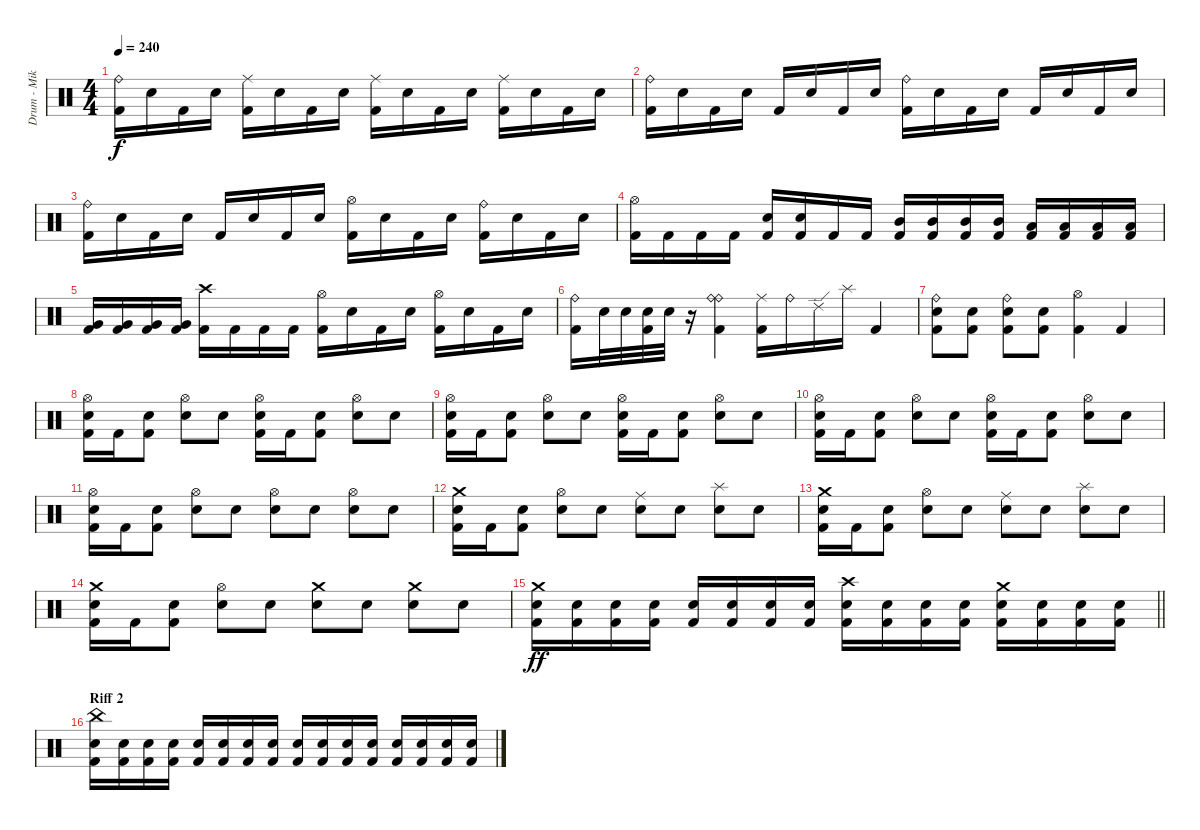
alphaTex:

\track ("Drum - Mike Collins" "Drum - Mik") {instrument percussion}
\staff {score}
\articulation defaults
\ts (4 4)
\tempo 240
\clef neutral
\ks c
("Ride (bell)" "Kick (hit) 2").16{dy f} "Electric Snare (hit)".16 "Kick (hit) 2".16 "Electric Snare (hit)".16 ("Ride (middle)" "Kick (hit) 2").16 "Electric Snare (hit)".16 "Kick (hit) 2".16 "Electric Snare (hit)".16 ("Ride (middle)" "Kick (hit) 2").16 "Electric Snare (hit)".16 "Kick (hit) 2".16 "Electric Snare (hit)".16 ("Ride (middle)" "Kick (hit) 2").16 "Electric Snare (hit)".16 "Kick (hit) 2".16 "Electric Snare (hit)".16 |
("Ride (bell)" "Kick (hit) 2").16 "Electric Snare (hit)".16 "Kick (hit) 2".16 "Electric Snare (hit)".16 "Kick (hit) 2".16 "Electric Snare (hit)".16 "Kick (hit) 2".16 "Electric Snare (hit)".16 ("Ride (bell)" "Kick (hit) 2").16 "Electric Snare (hit)".16 "Kick (hit) 2".16 "Electric Snare (hit)".16 "Kick (hit) 2".16 "Electric Snare (hit)".16 "Kick (hit) 2".16 "Electric Snare (hit)".16 |
("Ride (bell)" "Kick (hit) 2").16 "Electric Snare (hit)".16 "Kick (hit) 2".16 "Electric Snare (hit)".16 "Kick (hit) 2".16 "Electric Snare (hit)".16 "Kick (hit) 2".16 "Electric Snare (hit)".16 ("Hi-Hat (open)" "Kick (hit) 2").16 "Electric Snare (hit)".16 "Kick (hit) 2".16 "Electric Snare (hit)".16 ("Ride (bell)" "Kick (hit) 2").16 "Electric Snare (hit)".16 "Kick (hit) 2".16 "Electric Snare (hit)".16 |
("Hi-Hat (open)" "Kick (hit) 2").16 "Kick (hit) 2".16 "Kick (hit) 2".16 "Kick (hit) 2".16 ("Electric Snare (hit)" "Kick (hit) 2").16 ("Electric Snare (hit)" "Kick (hit) 2").16 "Kick (hit) 2".16 "Kick (hit) 2".16 ("Mid Tom (hit)" "Kick (hit) 2").16 ("Mid Tom (hit)" "Kick (hit) 2").16 ("Mid Tom (hit)" "Kick (hit) 2").16 ("Mid Tom (hit)" "Kick (hit) 2").16 ("Low Tom (hit)" "Kick (hit) 2").16 ("Low Tom (hit)" "Kick (hit) 2").16 ("Low Tom (hit)" "Kick (hit) 2").16 ("Low Tom (hit)" "Kick (hit) 2").16 |
("Very Low Tom (hit)" "Kick (hit) 2").16 ("Very Low Tom (hit)" "Kick (hit) 2").16 ("Very Low Tom (hit)" "Kick (hit) 2").16 ("Very Low Tom (hit)" "Kick (hit) 2").16 ("Crash high (hit)" "Kick (hit) 2").16 "Kick (hit) 2".16 "Kick (hit) 2".16 "Kick (hit) 2".16 ("Hi-Hat (open)" "Kick (hit) 2").16 "Electric Snare (hit)".16 "Kick (hit) 2".16 "Electric Snare (hit)".16 ("Hi-Hat (open)" "Kick (hit) 2").16 "Electric Snare (hit)".16 "Kick (hit) 2".16 "Electric Snare (hit)".16 |
("Ride (bell)" "Kick (hit) 2").16 "Electric Snare (hit)".32 "Electric Snare (hit)".32 ("Electric Snare (hit)" "Kick (hit) 2").32 "Electric Snare (hit)".32 r.16 ("Ride (bell)" "Ride (bell)" "Kick (hit) 2").4 ("Ride (middle)" "Kick (hit) 2").16 "Ride (bell)".16 "Ride (edge) 2".16 "Splash (hit)".16 "Kick (hit) 2".4 |
("Ride (bell)" "Electric Snare (hit)" "Kick (hit) 2").8 ("Electric Snare (hit)" "Kick (hit) 2").8 ("Ride (bell)" "Electric Snare (hit)" "Kick (hit) 2").8 ("Electric Snare (hit)" "Kick (hit) 2").8 ("Hi-Hat (open)" "Kick (hit) 2").4 "Kick (hit) 2".4 |
("Hi-Hat (open)" "Electric Snare (hit)" "Kick (hit) 2").16 "Kick (hit) 2".16 ("Electric Snare (hit)" "Kick (hit) 2").8 ("Hi-Hat (open)" "Electric Snare (hit)").8 "Electric Snare (hit)".8 ("Hi-Hat (open)" "Electric Snare (hit)" "Kick (hit) 2").16 "Kick (hit) 2".16 ("Electric Snare (hit)" "Kick (hit) 2").8 ("Hi-Hat (open)" "Electric Snare (hit)").8 "Electric Snare (hit)".8 |
("Hi-Hat (open)" "Electric Snare (hit)" "Kick (hit) 2").16 "Kick (hit) 2".16 ("Electric Snare (hit)" "Kick (hit) 2").8 ("Hi-Hat (open)" "Electric Snare (hit)").8 "Electric Snare (hit)".8 ("Hi-Hat (open)" "Electric Snare (hit)" "Kick (hit) 2").16 "Kick (hit) 2".16 ("Electric Snare (hit)" "Kick (hit) 2").8 ("Hi-Hat (open)" "Electric Snare (hit)").8 "Electric Snare (hit)".8 |
("Hi-Hat (open)" "Electric Snare (hit)" "Kick (hit) 2").16 "Kick (hit) 2".16 ("Electric Snare (hit)" "Kick (hit) 2").8 ("Hi-Hat (open)" "Electric Snare (hit)").8 "Electric Snare (hit)".8 ("Hi-Hat (open)" "Electric Snare (hit)" "Kick (hit) 2").16 "Kick (hit) 2".16 ("Electric Snare (hit)" "Kick (hit) 2").8 ("Hi-Hat (open)" "Electric Snare (hit)").8 "Electric Snare (hit)".8 |
("Hi-Hat (open)" "Electric Snare (hit)" "Kick (hit) 2").16 "Kick (hit) 2".16 ("Electric Snare (hit)" "Kick (hit) 2").8 ("Hi-Hat (open)" "Electric Snare (hit)").8 "Electric Snare (hit)".8 ("Hi-Hat (open)" "Electric Snare (hit)").8 "Electric Snare (hit)".8 ("Hi-Hat (open)" "Electric Snare (hit)").8 "Electric Snare (hit)".8 |
("Crash medium (hit)" "Electric Snare (hit)" "Kick (hit) 2").16 "Kick (hit) 2".16 ("Electric Snare (hit)" "Kick (hit) 2").8 ("Hi-Hat (open)" "Electric Snare (hit)").8 "Electric Snare (hit)".8 ("Ride (middle)" "Electric Snare (hit)").8 "Electric Snare (hit)".8 ("Splash (hit)" "Electric Snare (hit)").8 "Electric Snare (hit)".8 |
("Crash medium (hit)" "Electric Snare (hit)" "Kick (hit) 2").16 "Kick (hit) 2".16 ("Electric Snare (hit)" "Kick (hit) 2").8 ("Hi-Hat (open)" "Electric Snare (hit)").8 "Electric Snare (hit)".8 ("Ride (middle)" "Electric Snare (hit)").8 "Electric Snare (hit)".8 ("Splash (hit)" "Electric Snare (hit)").8 "Electric Snare (hit)".8 |
("Crash medium (hit)" "Electric Snare (hit)" "Kick (hit) 2").16 "Kick (hit) 2".16 ("Electric Snare (hit)" "Kick (hit) 2").8 ("Hi-Hat (open)" "Electric Snare (hit)").8 "Electric Snare (hit)".8 ("Crash medium (hit)" "Electric Snare (hit)").8 "Electric Snare (hit)".8 ("Crash medium (hit)" "Electric Snare (hit)").8 "Electric Snare (hit)".8 |
\barLineRight lightlight
("Crash medium (hit)" "Electric Snare (hit)" "Kick (hit) 2").16{dy ff} ("Electric Snare (hit)" "Kick (hit) 2").16 ("Electric Snare (hit)" "Kick (hit) 2").16 ("Electric Snare (hit)" "Kick (hit) 2").16 ("Electric Snare (hit)" "Kick (hit) 2").16 ("Electric Snare (hit)" "Kick (hit) 2").16 ("Electric Snare (hit)" "Kick (hit) 2").16 ("Electric Snare (hit)" "Kick (hit) 2").16 ("Crash high (hit)" "Electric Snare (hit)" "Kick (hit) 2").16 ("Electric Snare (hit)" "Kick (hit) 2").16 ("Electric Snare (hit)" "Kick (hit) 2").16 ("Electric Snare (hit)" "Kick (hit) 2").16 ("Crash medium (hit)" "Electric Snare (hit)" "Kick (hit) 2").16 ("Electric Snare (hit)" "Kick (hit) 2").16 ("Electric Snare (hit)" "Kick (hit) 2").16 ("Electric Snare (hit)" "Kick (hit) 2").16 |
\section ("" "Riff 2")
("China (hit)" "Electric Snare (hit)" "Kick (hit) 2").16 ("Electric Snare (hit)" "Kick (hit) 2").16 ("Electric Snare (hit)" "Kick (hit) 2").16 ("Electric Snare (hit)" "Kick (hit) 2").16 ("Electric Snare (hit)" "Kick (hit) 2").16 ("Electric Snare (hit)" "Kick (hit) 2").16 ("Electric Snare (hit)" "Kick (hit) 2").16 ("Electric Snare (hit)" "Kick (hit) 2").16 ("Electric Snare (hit)" "Kick (hit) 2").16 ("Electric Snare (hit)" "Kick (hit) 2").16 ("Electric Snare (hit)" "Kick (hit) 2").16 ("Electric Snare (hit)" "Kick (hit) 2").16 ("Electric Snare (hit)" "Kick (hit) 2").16 ("Electric Snare (hit)" "Kick (hit) 2").16 ("Electric Snare (hit)" "Kick (hit) 2").16 ("Electric Snare (hit)" "Kick (hit) 2").16
